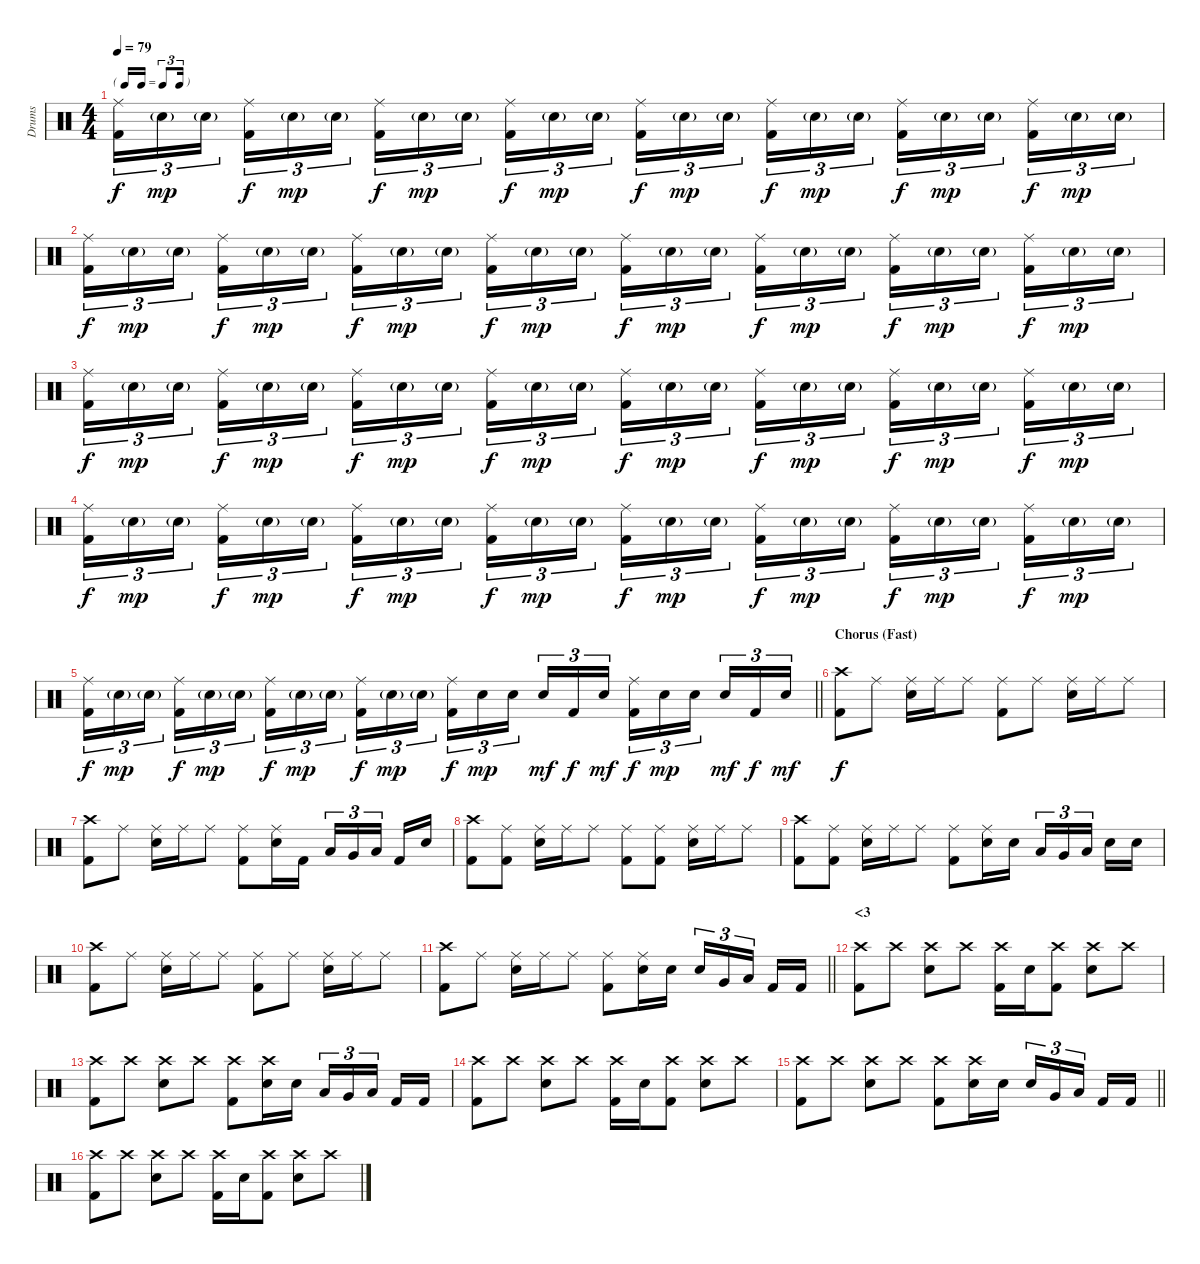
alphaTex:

\track ("Drums" "Drums") {instrument percussion}
\staff {score}
\articulation defaults
\ts (4 4)
\tf triplet16th
\tempo 79
\clef neutral
\ks c
("Ride (middle)" "Kick (hit) 2").16{tu (3 2) dy f} "Electric Snare (hit)"{g}.16{tu (3 2) dy mp} "Electric Snare (hit)"{g}.16{tu (3 2) beam splitsecondary} ("Ride (middle)" "Kick (hit) 2").16{tu (3 2) dy f} "Electric Snare (hit)"{g}.16{tu (3 2) dy mp} "Electric Snare (hit)"{g}.16{tu (3 2)} ("Ride (middle)" "Kick (hit) 2").16{tu (3 2) dy f} "Electric Snare (hit)"{g}.16{tu (3 2) dy mp} "Electric Snare (hit)"{g}.16{tu (3 2) beam splitsecondary} ("Ride (middle)" "Kick (hit) 2").16{tu (3 2) dy f} "Electric Snare (hit)"{g}.16{tu (3 2) dy mp} "Electric Snare (hit)"{g}.16{tu (3 2)} ("Ride (middle)" "Kick (hit) 2").16{tu (3 2) dy f} "Electric Snare (hit)"{g}.16{tu (3 2) dy mp} "Electric Snare (hit)"{g}.16{tu (3 2) beam splitsecondary} ("Ride (middle)" "Kick (hit) 2").16{tu (3 2) dy f} "Electric Snare (hit)"{g}.16{tu (3 2) dy mp} "Electric Snare (hit)"{g}.16{tu (3 2)} ("Ride (middle)" "Kick (hit) 2").16{tu (3 2) dy f} "Electric Snare (hit)"{g}.16{tu (3 2) dy mp} "Electric Snare (hit)"{g}.16{tu (3 2) beam splitsecondary} ("Ride (middle)" "Kick (hit) 2").16{tu (3 2) dy f} "Electric Snare (hit)"{g}.16{tu (3 2) dy mp} "Electric Snare (hit)"{g}.16{tu (3 2)} |
("Ride (middle)" "Kick (hit) 2").16{tu (3 2) dy f} "Electric Snare (hit)"{g}.16{tu (3 2) dy mp} "Electric Snare (hit)"{g}.16{tu (3 2) beam splitsecondary} ("Ride (middle)" "Kick (hit) 2").16{tu (3 2) dy f} "Electric Snare (hit)"{g}.16{tu (3 2) dy mp} "Electric Snare (hit)"{g}.16{tu (3 2)} ("Ride (middle)" "Kick (hit) 2").16{tu (3 2) dy f} "Electric Snare (hit)"{g}.16{tu (3 2) dy mp} "Electric Snare (hit)"{g}.16{tu (3 2) beam splitsecondary} ("Ride (middle)" "Kick (hit) 2").16{tu (3 2) dy f} "Electric Snare (hit)"{g}.16{tu (3 2) dy mp} "Electric Snare (hit)"{g}.16{tu (3 2)} ("Ride (middle)" "Kick (hit) 2").16{tu (3 2) dy f} "Electric Snare (hit)"{g}.16{tu (3 2) dy mp} "Electric Snare (hit)"{g}.16{tu (3 2) beam splitsecondary} ("Ride (middle)" "Kick (hit) 2").16{tu (3 2) dy f} "Electric Snare (hit)"{g}.16{tu (3 2) dy mp} "Electric Snare (hit)"{g}.16{tu (3 2)} ("Ride (middle)" "Kick (hit) 2").16{tu (3 2) dy f} "Electric Snare (hit)"{g}.16{tu (3 2) dy mp} "Electric Snare (hit)"{g}.16{tu (3 2) beam splitsecondary} ("Ride (middle)" "Kick (hit) 2").16{tu (3 2) dy f} "Electric Snare (hit)"{g}.16{tu (3 2) dy mp} "Electric Snare (hit)"{g}.16{tu (3 2)} |
("Ride (middle)" "Kick (hit) 2").16{tu (3 2) dy f} "Electric Snare (hit)"{g}.16{tu (3 2) dy mp} "Electric Snare (hit)"{g}.16{tu (3 2) beam splitsecondary} ("Ride (middle)" "Kick (hit) 2").16{tu (3 2) dy f} "Electric Snare (hit)"{g}.16{tu (3 2) dy mp} "Electric Snare (hit)"{g}.16{tu (3 2)} ("Ride (middle)" "Kick (hit) 2").16{tu (3 2) dy f} "Electric Snare (hit)"{g}.16{tu (3 2) dy mp} "Electric Snare (hit)"{g}.16{tu (3 2) beam splitsecondary} ("Ride (middle)" "Kick (hit) 2").16{tu (3 2) dy f} "Electric Snare (hit)"{g}.16{tu (3 2) dy mp} "Electric Snare (hit)"{g}.16{tu (3 2)} ("Ride (middle)" "Kick (hit) 2").16{tu (3 2) dy f} "Electric Snare (hit)"{g}.16{tu (3 2) dy mp} "Electric Snare (hit)"{g}.16{tu (3 2) beam splitsecondary} ("Ride (middle)" "Kick (hit) 2").16{tu (3 2) dy f} "Electric Snare (hit)"{g}.16{tu (3 2) dy mp} "Electric Snare (hit)"{g}.16{tu (3 2)} ("Ride (middle)" "Kick (hit) 2").16{tu (3 2) dy f} "Electric Snare (hit)"{g}.16{tu (3 2) dy mp} "Electric Snare (hit)"{g}.16{tu (3 2) beam splitsecondary} ("Ride (middle)" "Kick (hit) 2").16{tu (3 2) dy f} "Electric Snare (hit)"{g}.16{tu (3 2) dy mp} "Electric Snare (hit)"{g}.16{tu (3 2)} |
("Ride (middle)" "Kick (hit) 2").16{tu (3 2) dy f} "Electric Snare (hit)"{g}.16{tu (3 2) dy mp} "Electric Snare (hit)"{g}.16{tu (3 2) beam splitsecondary} ("Ride (middle)" "Kick (hit) 2").16{tu (3 2) dy f} "Electric Snare (hit)"{g}.16{tu (3 2) dy mp} "Electric Snare (hit)"{g}.16{tu (3 2)} ("Ride (middle)" "Kick (hit) 2").16{tu (3 2) dy f} "Electric Snare (hit)"{g}.16{tu (3 2) dy mp} "Electric Snare (hit)"{g}.16{tu (3 2) beam splitsecondary} ("Ride (middle)" "Kick (hit) 2").16{tu (3 2) dy f} "Electric Snare (hit)"{g}.16{tu (3 2) dy mp} "Electric Snare (hit)"{g}.16{tu (3 2)} ("Ride (middle)" "Kick (hit) 2").16{tu (3 2) dy f} "Electric Snare (hit)"{g}.16{tu (3 2) dy mp} "Electric Snare (hit)"{g}.16{tu (3 2) beam splitsecondary} ("Ride (middle)" "Kick (hit) 2").16{tu (3 2) dy f} "Electric Snare (hit)"{g}.16{tu (3 2) dy mp} "Electric Snare (hit)"{g}.16{tu (3 2)} ("Ride (middle)" "Kick (hit) 2").16{tu (3 2) dy f} "Electric Snare (hit)"{g}.16{tu (3 2) dy mp} "Electric Snare (hit)"{g}.16{tu (3 2) beam splitsecondary} ("Ride (middle)" "Kick (hit) 2").16{tu (3 2) dy f} "Electric Snare (hit)"{g}.16{tu (3 2) dy mp} "Electric Snare (hit)"{g}.16{tu (3 2)} |
\barLineRight lightlight
("Ride (middle)" "Kick (hit) 2").16{tu (3 2) dy f} "Electric Snare (hit)"{g}.16{tu (3 2) dy mp} "Electric Snare (hit)"{g}.16{tu (3 2) beam splitsecondary} ("Ride (middle)" "Kick (hit) 2").16{tu (3 2) dy f} "Electric Snare (hit)"{g}.16{tu (3 2) dy mp} "Electric Snare (hit)"{g}.16{tu (3 2)} ("Ride (middle)" "Kick (hit) 2").16{tu (3 2) dy f} "Electric Snare (hit)"{g}.16{tu (3 2) dy mp} "Electric Snare (hit)"{g}.16{tu (3 2) beam splitsecondary} ("Ride (middle)" "Kick (hit) 2").16{tu (3 2) dy f} "Electric Snare (hit)"{g}.16{tu (3 2) dy mp} "Electric Snare (hit)"{g}.16{tu (3 2)} ("Ride (middle)" "Kick (hit) 2").16{tu (3 2) dy f} "Electric Snare (hit)".16{tu (3 2) dy mp} "Electric Snare (hit)".16{tu (3 2) beam splitsecondary} "Electric Snare (hit)".16{tu (3 2) dy mf} "Kick (hit) 2".16{tu (3 2) dy f} "Electric Snare (hit)".16{tu (3 2) dy mf} ("Ride (middle)" "Kick (hit) 2").16{tu (3 2) dy f} "Electric Snare (hit)".16{tu (3 2) dy mp} "Electric Snare (hit)".16{tu (3 2) beam splitsecondary} "Electric Snare (hit)".16{tu (3 2) dy mf} "Kick (hit) 2".16{tu (3 2) dy f} "Electric Snare (hit)".16{tu (3 2) dy mf} |
\section ("" "Chorus (Fast)")
("Crash high (hit)" "Kick (hit) 2").8{dy f} "Ride (middle)".8 ("Ride (middle)" "Electric Snare (hit)").16 "Ride (middle)".16 "Ride (middle)".8 ("Ride (middle)" "Kick (hit) 2").8 "Ride (middle)".8 ("Ride (middle)" "Electric Snare (hit)").16 "Ride (middle)".16 "Ride (middle)".8 |
("Crash high (hit)" "Kick (hit) 2").8 "Ride (middle)".8 ("Ride (middle)" "Electric Snare (hit)").16 "Ride (middle)".16 "Ride (middle)".8 ("Ride (middle)" "Kick (hit) 2").8 ("Ride (middle)" "Electric Snare (hit)").16 "Kick (hit) 2".16 "Low Tom (hit)".16{tu (3 2)} "Very Low Tom (hit)".16{tu (3 2)} "Low Floor Tom (hit)".16{tu (3 2) beam splitsecondary} "Kick (hit) 2".16 "Electric Snare (hit)".16 |
("Crash high (hit)" "Kick (hit) 2").8 ("Ride (middle)" "Kick (hit) 2").8 ("Ride (middle)" "Electric Snare (hit)").16 "Ride (middle)".16 "Ride (middle)".8 ("Ride (middle)" "Kick (hit) 2").8 ("Ride (middle)" "Kick (hit) 2").8 ("Ride (middle)" "Electric Snare (hit)").16 "Ride (middle)".16 "Ride (middle)".8 |
("Crash high (hit)" "Kick (hit) 2").8 ("Ride (middle)" "Kick (hit) 2").8 ("Ride (middle)" "Electric Snare (hit)").16 "Ride (middle)".16 "Ride (middle)".8 ("Ride (middle)" "Kick (hit) 2").8 ("Ride (middle)" "Electric Snare (hit)").16 "Electric Snare (hit)".16 "Low Tom (hit)".16{tu (3 2)} "Very Low Tom (hit)".16{tu (3 2)} "Low Floor Tom (hit)".16{tu (3 2) beam splitsecondary} "Electric Snare (hit)".16 "Electric Snare (hit)".16 |
("Crash high (hit)" "Kick (hit) 2").8 "Ride (middle)".8 ("Ride (middle)" "Electric Snare (hit)").16 "Ride (middle)".16 "Ride (middle)".8 ("Ride (middle)" "Kick (hit) 2").8 "Ride (middle)".8 ("Ride (middle)" "Electric Snare (hit)").16 "Ride (middle)".16 "Ride (middle)".8 |
\barLineRight lightlight
("Crash high (hit)" "Kick (hit) 2").8 "Ride (middle)".8 ("Ride (middle)" "Electric Snare (hit)").16 "Ride (middle)".16 "Ride (middle)".8 ("Ride (middle)" "Kick (hit) 2").8 ("Ride (middle)" "Electric Snare (hit)").16 "Electric Snare (hit)".16 "Electric Snare (hit)".16{tu (3 2)} "Very Low Tom (hit)".16{tu (3 2)} "Low Floor Tom (hit)".16{tu (3 2) beam splitsecondary} "Kick (hit) 2".16 "Kick (hit) 2".16 |
\section ("" "<3")
("Crash high (hit)" "Kick (hit) 2").8 "Crash high (hit)".8 ("Crash high (hit)" "Electric Snare (hit)").8 "Crash high (hit)".8 ("Crash high (hit)" "Kick (hit) 2").16 "Electric Snare (hit)".16 ("Crash high (hit)" "Kick (hit) 2").8 ("Crash high (hit)" "Electric Snare (hit)").8 "Crash high (hit)".8 |
("Crash high (hit)" "Kick (hit) 2").8 "Crash high (hit)".8 ("Crash high (hit)" "Electric Snare (hit)").8 "Crash high (hit)".8 ("Crash high (hit)" "Kick (hit) 2").8 ("Crash high (hit)" "Electric Snare (hit)").16 "Electric Snare (hit)".16 "Low Tom (hit)".16{tu (3 2)} "Very Low Tom (hit)".16{tu (3 2)} "Low Floor Tom (hit)".16{tu (3 2) beam splitsecondary} "Kick (hit) 2".16 "Kick (hit) 2".16 |
("Crash high (hit)" "Kick (hit) 2").8 "Crash high (hit)".8 ("Crash high (hit)" "Electric Snare (hit)").8 "Crash high (hit)".8 ("Crash high (hit)" "Kick (hit) 2").16 "Electric Snare (hit)".16 ("Crash high (hit)" "Kick (hit) 2").8 ("Crash high (hit)" "Electric Snare (hit)").8 "Crash high (hit)".8 |
\barLineRight lightlight
("Crash high (hit)" "Kick (hit) 2").8 "Crash high (hit)".8 ("Crash high (hit)" "Electric Snare (hit)").8 "Crash high (hit)".8 ("Crash high (hit)" "Kick (hit) 2").8 ("Crash high (hit)" "Electric Snare (hit)").16 "Electric Snare (hit)".16 "Electric Snare (hit)".16{tu (3 2)} "Very Low Tom (hit)".16{tu (3 2)} "Low Floor Tom (hit)".16{tu (3 2) beam splitsecondary} "Kick (hit) 2".16 "Kick (hit) 2".16 |
("Crash high (hit)" "Kick (hit) 2").8 "Crash high (hit)".8 ("Crash high (hit)" "Electric Snare (hit)").8 "Crash high (hit)".8 ("Crash high (hit)" "Kick (hit) 2").16 "Electric Snare (hit)".16 ("Crash high (hit)" "Kick (hit) 2").8 ("Crash high (hit)" "Electric Snare (hit)").8 "Crash high (hit)".8
